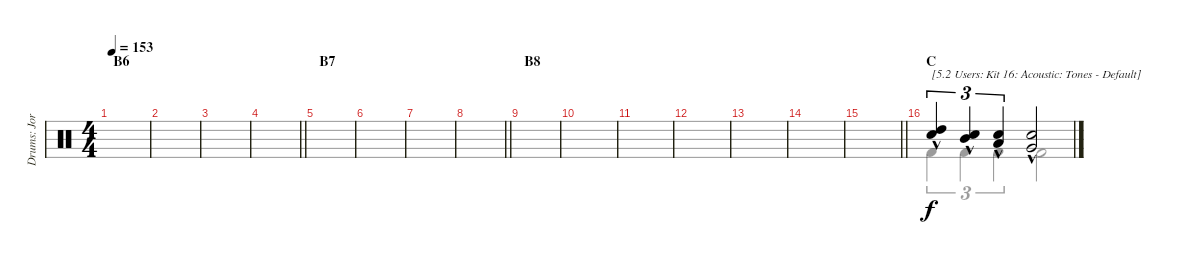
\track ("Drums: Jorg" "Drums: Jor") {instrument percussion}
\staff {score}
\articulation defaults
\voice
\ts (4 4)
\section ("" "B6")
\tempo 153
\clef neutral
\ks c
|
|
|
\barLineRight lightlight
|
\section ("" "B7")
|
|
|
\barLineRight lightlight
|
\section ("" "B8")
|
|
|
|
|
|
\barLineRight lightlight
|
\section ("" "C")
("Snare (hit) 2" "High Tom (hit)"{hac}).4{tu (3 2) txt "[5.2 Users: Kit 16: Acoustic: Tones - Default]"} ("Snare (hit) 2" "Mid Tom (hit)"{hac}).4{tu (3 2)} ("Snare (hit) 2" "Low Tom (hit)"{hac}).4{tu (3 2)} ("Snare (hit) 2" "Very Low Tom (hit)"{hac}).2
\voice
\clef neutral
\ottava regular
\simile none
\ks c
|
|
|
\barLineRight lightlight
|
|
|
|
\barLineRight lightlight
|
|
|
|
|
|
|
\barLineRight lightlight
|
"Kick (hit) 2".4{tu (3 2)} "Kick (hit) 2".4{tu (3 2)} "Kick (hit) 2".4{tu (3 2)} "Kick (hit) 2".2
